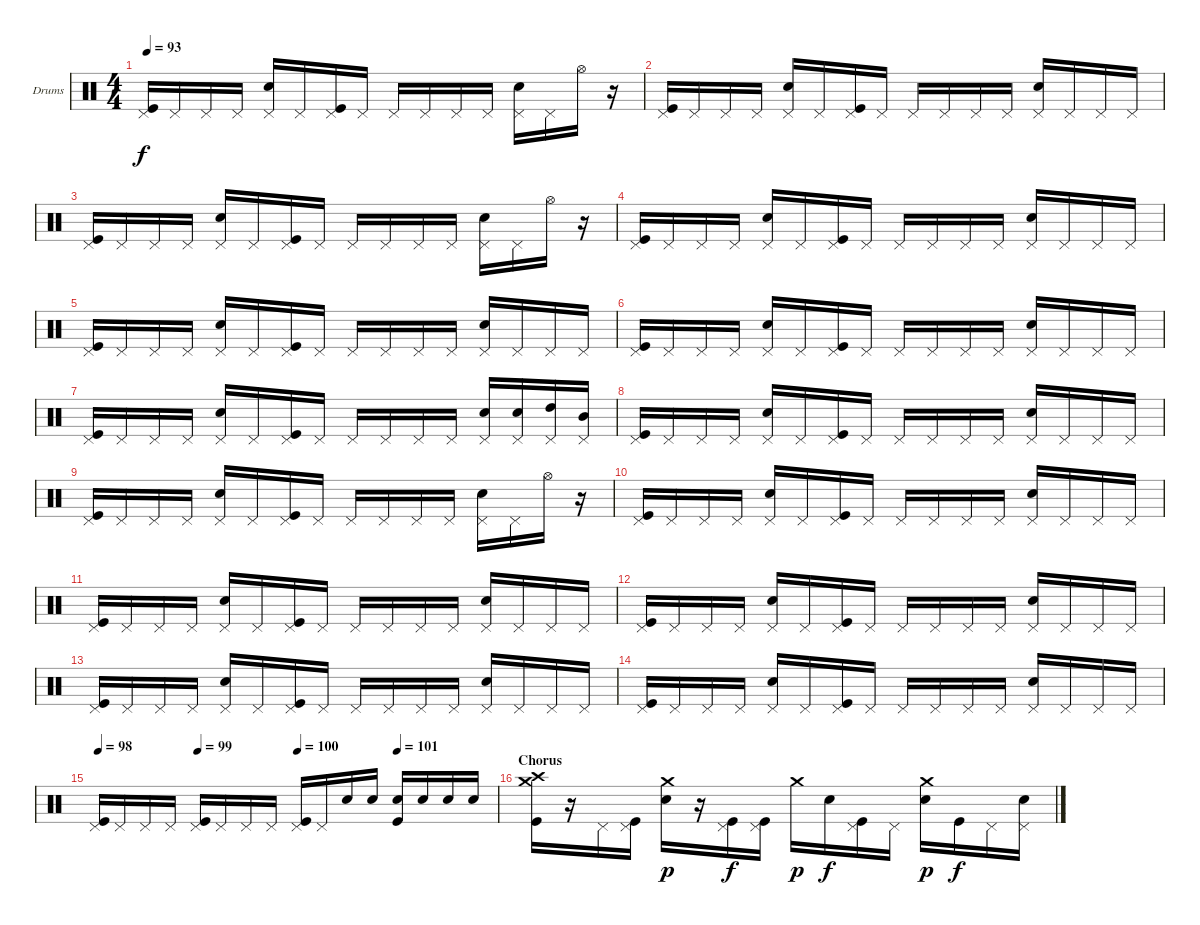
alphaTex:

\bracketExtendMode groupsimilarinstruments
\firstSystemTrackNameOrientation horizontal
\otherSystemsTrackNameOrientation horizontal
\track ("Drumkit" "Drums") {instrument percussion}
\staff {score}
\articulation defaults
\ts (4 4)
\tempo 93
\clef neutral
\ks c
("Pedal Hi-Hat (hit)" "Kick (hit)").16{dy f} "Pedal Hi-Hat (hit)".16 "Pedal Hi-Hat (hit)".16 "Pedal Hi-Hat (hit)".16 ("Pedal Hi-Hat (hit)" "Snare (hit) 2").16 "Pedal Hi-Hat (hit)".16 ("Pedal Hi-Hat (hit)" "Kick (hit)").16 "Pedal Hi-Hat (hit)".16 "Pedal Hi-Hat (hit)".16 "Pedal Hi-Hat (hit)".16 "Pedal Hi-Hat (hit)".16 "Pedal Hi-Hat (hit)".16 ("Pedal Hi-Hat (hit)" "Snare (hit) 2").16 "Pedal Hi-Hat (hit)".16 "Hi-Hat (open)".16 r.16 |
("Pedal Hi-Hat (hit)" "Kick (hit)").16 "Pedal Hi-Hat (hit)".16 "Pedal Hi-Hat (hit)".16 "Pedal Hi-Hat (hit)".16 ("Pedal Hi-Hat (hit)" "Snare (hit) 2").16 "Pedal Hi-Hat (hit)".16 ("Pedal Hi-Hat (hit)" "Kick (hit)").16 "Pedal Hi-Hat (hit)".16 "Pedal Hi-Hat (hit)".16 "Pedal Hi-Hat (hit)".16 "Pedal Hi-Hat (hit)".16 "Pedal Hi-Hat (hit)".16 ("Pedal Hi-Hat (hit)" "Snare (hit) 2").16 "Pedal Hi-Hat (hit)".16 "Pedal Hi-Hat (hit)".16 "Pedal Hi-Hat (hit)".16 |
("Pedal Hi-Hat (hit)" "Kick (hit)").16 "Pedal Hi-Hat (hit)".16 "Pedal Hi-Hat (hit)".16 "Pedal Hi-Hat (hit)".16 ("Pedal Hi-Hat (hit)" "Snare (hit) 2").16 "Pedal Hi-Hat (hit)".16 ("Pedal Hi-Hat (hit)" "Kick (hit)").16 "Pedal Hi-Hat (hit)".16 "Pedal Hi-Hat (hit)".16 "Pedal Hi-Hat (hit)".16 "Pedal Hi-Hat (hit)".16 "Pedal Hi-Hat (hit)".16 ("Pedal Hi-Hat (hit)" "Snare (hit) 2").16 "Pedal Hi-Hat (hit)".16 "Hi-Hat (open)".16 r.16 |
("Pedal Hi-Hat (hit)" "Kick (hit)").16 "Pedal Hi-Hat (hit)".16 "Pedal Hi-Hat (hit)".16 "Pedal Hi-Hat (hit)".16 ("Pedal Hi-Hat (hit)" "Snare (hit) 2").16 "Pedal Hi-Hat (hit)".16 ("Pedal Hi-Hat (hit)" "Kick (hit)").16 "Pedal Hi-Hat (hit)".16 "Pedal Hi-Hat (hit)".16 "Pedal Hi-Hat (hit)".16 "Pedal Hi-Hat (hit)".16 "Pedal Hi-Hat (hit)".16 ("Pedal Hi-Hat (hit)" "Snare (hit) 2").16 "Pedal Hi-Hat (hit)".16 "Pedal Hi-Hat (hit)".16 "Pedal Hi-Hat (hit)".16 |
("Pedal Hi-Hat (hit)" "Kick (hit)").16 "Pedal Hi-Hat (hit)".16 "Pedal Hi-Hat (hit)".16 "Pedal Hi-Hat (hit)".16 ("Pedal Hi-Hat (hit)" "Snare (hit) 2").16 "Pedal Hi-Hat (hit)".16 ("Pedal Hi-Hat (hit)" "Kick (hit)").16 "Pedal Hi-Hat (hit)".16 "Pedal Hi-Hat (hit)".16 "Pedal Hi-Hat (hit)".16 "Pedal Hi-Hat (hit)".16 "Pedal Hi-Hat (hit)".16 ("Pedal Hi-Hat (hit)" "Snare (hit) 2").16 "Pedal Hi-Hat (hit)".16 "Pedal Hi-Hat (hit)".16 "Pedal Hi-Hat (hit)".16 |
("Pedal Hi-Hat (hit)" "Kick (hit)").16 "Pedal Hi-Hat (hit)".16 "Pedal Hi-Hat (hit)".16 "Pedal Hi-Hat (hit)".16 ("Pedal Hi-Hat (hit)" "Snare (hit) 2").16 "Pedal Hi-Hat (hit)".16 ("Pedal Hi-Hat (hit)" "Kick (hit)").16 "Pedal Hi-Hat (hit)".16 "Pedal Hi-Hat (hit)".16 "Pedal Hi-Hat (hit)".16 "Pedal Hi-Hat (hit)".16 "Pedal Hi-Hat (hit)".16 ("Pedal Hi-Hat (hit)" "Snare (hit) 2").16 "Pedal Hi-Hat (hit)".16 "Pedal Hi-Hat (hit)".16 "Pedal Hi-Hat (hit)".16 |
("Pedal Hi-Hat (hit)" "Kick (hit)").16 "Pedal Hi-Hat (hit)".16 "Pedal Hi-Hat (hit)".16 "Pedal Hi-Hat (hit)".16 ("Pedal Hi-Hat (hit)" "Snare (hit) 2").16 "Pedal Hi-Hat (hit)".16 ("Pedal Hi-Hat (hit)" "Kick (hit)").16 "Pedal Hi-Hat (hit)".16 "Pedal Hi-Hat (hit)".16 "Pedal Hi-Hat (hit)".16 "Pedal Hi-Hat (hit)".16 "Pedal Hi-Hat (hit)".16 ("Pedal Hi-Hat (hit)" "Snare (hit) 2").16 ("Pedal Hi-Hat (hit)" "Snare (hit) 2").16 ("Pedal Hi-Hat (hit)" "High Tom (hit)").16 ("Pedal Hi-Hat (hit)" "Mid Tom (hit)").16 |
("Pedal Hi-Hat (hit)" "Kick (hit)").16 "Pedal Hi-Hat (hit)".16 "Pedal Hi-Hat (hit)".16 "Pedal Hi-Hat (hit)".16 ("Pedal Hi-Hat (hit)" "Snare (hit) 2").16 "Pedal Hi-Hat (hit)".16 ("Pedal Hi-Hat (hit)" "Kick (hit)").16 "Pedal Hi-Hat (hit)".16 "Pedal Hi-Hat (hit)".16 "Pedal Hi-Hat (hit)".16 "Pedal Hi-Hat (hit)".16 "Pedal Hi-Hat (hit)".16 ("Pedal Hi-Hat (hit)" "Snare (hit) 2").16 "Pedal Hi-Hat (hit)".16 "Pedal Hi-Hat (hit)".16 "Pedal Hi-Hat (hit)".16 |
("Pedal Hi-Hat (hit)" "Kick (hit)").16 "Pedal Hi-Hat (hit)".16 "Pedal Hi-Hat (hit)".16 "Pedal Hi-Hat (hit)".16 ("Pedal Hi-Hat (hit)" "Snare (hit) 2").16 "Pedal Hi-Hat (hit)".16 ("Pedal Hi-Hat (hit)" "Kick (hit)").16 "Pedal Hi-Hat (hit)".16 "Pedal Hi-Hat (hit)".16 "Pedal Hi-Hat (hit)".16 "Pedal Hi-Hat (hit)".16 "Pedal Hi-Hat (hit)".16 ("Pedal Hi-Hat (hit)" "Snare (hit) 2").16 "Pedal Hi-Hat (hit)".16 "Hi-Hat (open)".16 r.16 |
("Pedal Hi-Hat (hit)" "Kick (hit)").16 "Pedal Hi-Hat (hit)".16 "Pedal Hi-Hat (hit)".16 "Pedal Hi-Hat (hit)".16 ("Pedal Hi-Hat (hit)" "Snare (hit) 2").16 "Pedal Hi-Hat (hit)".16 ("Pedal Hi-Hat (hit)" "Kick (hit)").16 "Pedal Hi-Hat (hit)".16 "Pedal Hi-Hat (hit)".16 "Pedal Hi-Hat (hit)".16 "Pedal Hi-Hat (hit)".16 "Pedal Hi-Hat (hit)".16 ("Pedal Hi-Hat (hit)" "Snare (hit) 2").16 "Pedal Hi-Hat (hit)".16 "Pedal Hi-Hat (hit)".16 "Pedal Hi-Hat (hit)".16 |
("Pedal Hi-Hat (hit)" "Kick (hit)").16 "Pedal Hi-Hat (hit)".16 "Pedal Hi-Hat (hit)".16 "Pedal Hi-Hat (hit)".16 ("Pedal Hi-Hat (hit)" "Snare (hit) 2").16 "Pedal Hi-Hat (hit)".16 ("Pedal Hi-Hat (hit)" "Kick (hit)").16 "Pedal Hi-Hat (hit)".16 "Pedal Hi-Hat (hit)".16 "Pedal Hi-Hat (hit)".16 "Pedal Hi-Hat (hit)".16 "Pedal Hi-Hat (hit)".16 ("Pedal Hi-Hat (hit)" "Snare (hit) 2").16 "Pedal Hi-Hat (hit)".16 "Pedal Hi-Hat (hit)".16 "Pedal Hi-Hat (hit)".16 |
("Pedal Hi-Hat (hit)" "Kick (hit)").16 "Pedal Hi-Hat (hit)".16 "Pedal Hi-Hat (hit)".16 "Pedal Hi-Hat (hit)".16 ("Pedal Hi-Hat (hit)" "Snare (hit) 2").16 "Pedal Hi-Hat (hit)".16 ("Pedal Hi-Hat (hit)" "Kick (hit)").16 "Pedal Hi-Hat (hit)".16 "Pedal Hi-Hat (hit)".16 "Pedal Hi-Hat (hit)".16 "Pedal Hi-Hat (hit)".16 "Pedal Hi-Hat (hit)".16 ("Pedal Hi-Hat (hit)" "Snare (hit) 2").16 "Pedal Hi-Hat (hit)".16 "Pedal Hi-Hat (hit)".16 "Pedal Hi-Hat (hit)".16 |
("Pedal Hi-Hat (hit)" "Kick (hit)").16 "Pedal Hi-Hat (hit)".16 "Pedal Hi-Hat (hit)".16 "Pedal Hi-Hat (hit)".16 ("Pedal Hi-Hat (hit)" "Snare (hit) 2").16 "Pedal Hi-Hat (hit)".16 ("Pedal Hi-Hat (hit)" "Kick (hit)").16 "Pedal Hi-Hat (hit)".16 "Pedal Hi-Hat (hit)".16 "Pedal Hi-Hat (hit)".16 "Pedal Hi-Hat (hit)".16 "Pedal Hi-Hat (hit)".16 ("Pedal Hi-Hat (hit)" "Snare (hit) 2").16 "Pedal Hi-Hat (hit)".16 "Pedal Hi-Hat (hit)".16 "Pedal Hi-Hat (hit)".16 |
("Pedal Hi-Hat (hit)" "Kick (hit)").16 "Pedal Hi-Hat (hit)".16 "Pedal Hi-Hat (hit)".16 "Pedal Hi-Hat (hit)".16 ("Pedal Hi-Hat (hit)" "Snare (hit) 2").16 "Pedal Hi-Hat (hit)".16 ("Pedal Hi-Hat (hit)" "Kick (hit)").16 "Pedal Hi-Hat (hit)".16 "Pedal Hi-Hat (hit)".16 "Pedal Hi-Hat (hit)".16 "Pedal Hi-Hat (hit)".16 "Pedal Hi-Hat (hit)".16 ("Pedal Hi-Hat (hit)" "Snare (hit) 2").16 "Pedal Hi-Hat (hit)".16 "Pedal Hi-Hat (hit)".16 "Pedal Hi-Hat (hit)".16 |
\tempo 98
\tempo (99 0.25)
\tempo (100 0.5)
\tempo (101 0.75)
("Pedal Hi-Hat (hit)" "Kick (hit)").16 "Pedal Hi-Hat (hit)".16 "Pedal Hi-Hat (hit)".16 "Pedal Hi-Hat (hit)".16 ("Pedal Hi-Hat (hit)" "Kick (hit)").16 "Pedal Hi-Hat (hit)".16 "Pedal Hi-Hat (hit)".16 "Pedal Hi-Hat (hit)".16 ("Pedal Hi-Hat (hit)" "Kick (hit)").16 "Pedal Hi-Hat (hit)".16 "Snare (hit) 2".16 "Snare (hit) 2".16 ("Snare (hit) 2" "Kick (hit)").16 "Snare (hit) 2".16 "Snare (hit) 2".16 "Snare (hit) 2".16 |
\section ("" "Chorus")
("Crash high (hit)" "Crash medium (hit)" "Kick (hit)").16 r.16 "Pedal Hi-Hat (hit)".16 ("Pedal Hi-Hat (hit)" "Kick (hit)").16 ("Crash medium (hit)" "Snare (hit) 2").16{dy p} r.16 ("Pedal Hi-Hat (hit)" "Kick (hit)").16{dy f} ("Pedal Hi-Hat (hit)" "Kick (hit)").16 "Crash medium (hit)".16{dy p} "Snare (hit) 2".16{dy f} ("Pedal Hi-Hat (hit)" "Kick (hit)").16 "Pedal Hi-Hat (hit)".16 ("Crash medium (hit)" "Snare (hit) 2").16{dy p} "Kick (hit)".16{dy f} "Pedal Hi-Hat (hit)".16 ("Pedal Hi-Hat (hit)" "Snare (hit) 2").16
